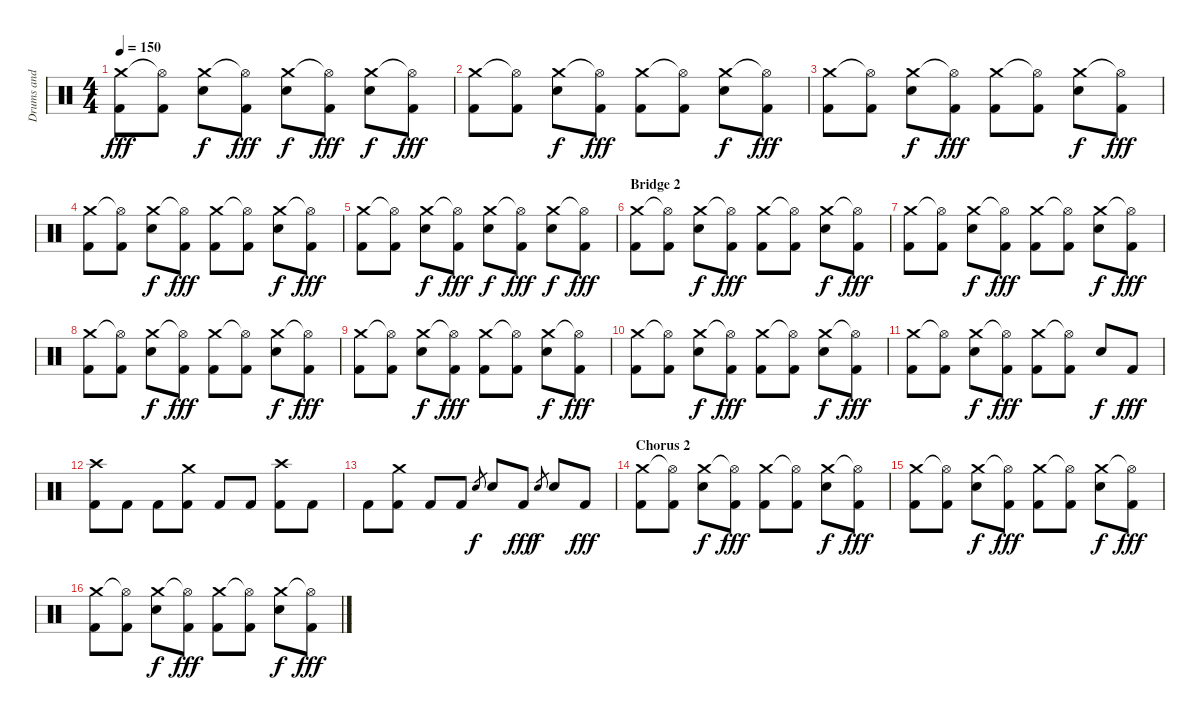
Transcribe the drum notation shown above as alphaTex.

\track ("Drums and Percussion" "Drums and ") {instrument percussion}
\staff {score}
\articulation defaults
\ts (4 4)
\tempo 150
\clef neutral
\ks c
("Crash medium (hit)" "Kick (hit) 2").8{dy fff} ("Hi-Hat (open)"{t} "Kick (hit) 2").8 ("Crash medium (hit)" "Electric Snare (hit)").8{dy f} ("Hi-Hat (open)"{t} "Kick (hit) 2").8{dy fff} ("Crash medium (hit)" "Electric Snare (hit)").8{dy f} ("Hi-Hat (open)"{t} "Kick (hit) 2").8{dy fff} ("Crash medium (hit)" "Electric Snare (hit)").8{dy f} ("Hi-Hat (open)"{t} "Kick (hit) 2").8{dy fff} |
("Crash medium (hit)" "Kick (hit) 2").8 ("Hi-Hat (open)"{t} "Kick (hit) 2").8 ("Crash medium (hit)" "Electric Snare (hit)").8{dy f} ("Hi-Hat (open)"{t} "Kick (hit) 2").8{dy fff} ("Crash medium (hit)" "Kick (hit) 2").8 ("Hi-Hat (open)"{t} "Kick (hit) 2").8 ("Crash medium (hit)" "Electric Snare (hit)").8{dy f} ("Hi-Hat (open)"{t} "Kick (hit) 2").8{dy fff} |
("Crash medium (hit)" "Kick (hit) 2").8 ("Hi-Hat (open)"{t} "Kick (hit) 2").8 ("Crash medium (hit)" "Electric Snare (hit)").8{dy f} ("Hi-Hat (open)"{t} "Kick (hit) 2").8{dy fff} ("Crash medium (hit)" "Kick (hit) 2").8 ("Hi-Hat (open)"{t} "Kick (hit) 2").8 ("Crash medium (hit)" "Electric Snare (hit)").8{dy f} ("Hi-Hat (open)"{t} "Kick (hit) 2").8{dy fff} |
("Crash medium (hit)" "Kick (hit) 2").8 ("Hi-Hat (open)"{t} "Kick (hit) 2").8 ("Crash medium (hit)" "Electric Snare (hit)").8{dy f} ("Hi-Hat (open)"{t} "Kick (hit) 2").8{dy fff} ("Crash medium (hit)" "Kick (hit) 2").8 ("Hi-Hat (open)"{t} "Kick (hit) 2").8 ("Crash medium (hit)" "Electric Snare (hit)").8{dy f} ("Hi-Hat (open)"{t} "Kick (hit) 2").8{dy fff} |
("Crash medium (hit)" "Kick (hit) 2").8 ("Hi-Hat (open)"{t} "Kick (hit) 2").8 ("Crash medium (hit)" "Electric Snare (hit)").8{dy f} ("Hi-Hat (open)"{t} "Kick (hit) 2").8{dy fff} ("Crash medium (hit)" "Electric Snare (hit)").8{dy f} ("Hi-Hat (open)"{t} "Kick (hit) 2").8{dy fff} ("Crash medium (hit)" "Electric Snare (hit)").8{dy f} ("Hi-Hat (open)"{t} "Kick (hit) 2").8{dy fff} |
\section ("" "Bridge 2")
("Crash medium (hit)" "Kick (hit) 2").8 ("Hi-Hat (open)"{t} "Kick (hit) 2").8 ("Crash medium (hit)" "Electric Snare (hit)").8{dy f} ("Hi-Hat (open)"{t} "Kick (hit) 2").8{dy fff} ("Crash medium (hit)" "Kick (hit) 2").8 ("Hi-Hat (open)"{t} "Kick (hit) 2").8 ("Crash medium (hit)" "Electric Snare (hit)").8{dy f} ("Hi-Hat (open)"{t} "Kick (hit) 2").8{dy fff} |
("Crash medium (hit)" "Kick (hit) 2").8 ("Hi-Hat (open)"{t} "Kick (hit) 2").8 ("Crash medium (hit)" "Electric Snare (hit)").8{dy f} ("Hi-Hat (open)"{t} "Kick (hit) 2").8{dy fff} ("Crash medium (hit)" "Kick (hit) 2").8 ("Hi-Hat (open)"{t} "Kick (hit) 2").8 ("Crash medium (hit)" "Electric Snare (hit)").8{dy f} ("Hi-Hat (open)"{t} "Kick (hit) 2").8{dy fff} |
("Crash medium (hit)" "Kick (hit) 2").8 ("Hi-Hat (open)"{t} "Kick (hit) 2").8 ("Crash medium (hit)" "Electric Snare (hit)").8{dy f} ("Hi-Hat (open)"{t} "Kick (hit) 2").8{dy fff} ("Crash medium (hit)" "Kick (hit) 2").8 ("Hi-Hat (open)"{t} "Kick (hit) 2").8 ("Crash medium (hit)" "Electric Snare (hit)").8{dy f} ("Hi-Hat (open)"{t} "Kick (hit) 2").8{dy fff} |
("Crash medium (hit)" "Kick (hit) 2").8 ("Hi-Hat (open)"{t} "Kick (hit) 2").8 ("Crash medium (hit)" "Electric Snare (hit)").8{dy f} ("Hi-Hat (open)"{t} "Kick (hit) 2").8{dy fff} ("Crash medium (hit)" "Kick (hit) 2").8 ("Hi-Hat (open)"{t} "Kick (hit) 2").8 ("Crash medium (hit)" "Electric Snare (hit)").8{dy f} ("Hi-Hat (open)"{t} "Kick (hit) 2").8{dy fff} |
("Crash medium (hit)" "Kick (hit) 2").8 ("Hi-Hat (open)"{t} "Kick (hit) 2").8 ("Crash medium (hit)" "Electric Snare (hit)").8{dy f} ("Hi-Hat (open)"{t} "Kick (hit) 2").8{dy fff} ("Crash medium (hit)" "Kick (hit) 2").8 ("Hi-Hat (open)"{t} "Kick (hit) 2").8 ("Crash medium (hit)" "Electric Snare (hit)").8{dy f} ("Hi-Hat (open)"{t} "Kick (hit) 2").8{dy fff} |
("Crash medium (hit)" "Kick (hit) 2").8 ("Hi-Hat (open)"{t} "Kick (hit) 2").8 ("Crash medium (hit)" "Electric Snare (hit)").8{dy f} ("Hi-Hat (open)"{t} "Kick (hit) 2").8{dy fff} ("Crash medium (hit)" "Kick (hit) 2").8 ("Hi-Hat (open)"{t} "Kick (hit) 2").8 "Electric Snare (hit)".8{dy f} "Kick (hit) 2".8{dy fff} |
("Crash high (hit)" "Kick (hit) 2").8 "Kick (hit) 2".8 "Kick (hit) 2".8 ("Crash medium (hit)" "Kick (hit) 2").8 "Kick (hit) 2".8 "Kick (hit) 2".8 ("Crash high (hit)" "Kick (hit) 2").8 "Kick (hit) 2".8 |
"Kick (hit) 2".8 ("Crash medium (hit)" "Kick (hit) 2").8 "Kick (hit) 2".8 "Kick (hit) 2".8 "Electric Snare (hit)".8{gr dy f} "Electric Snare (hit)".8 "Kick (hit) 2".8{dy fff} "Electric Snare (hit)".8{gr dy f} "Electric Snare (hit)".8 "Kick (hit) 2".8{dy fff} |
\section ("" "Chorus 2")
("Crash medium (hit)" "Kick (hit) 2").8 ("Hi-Hat (open)"{t} "Kick (hit) 2").8 ("Crash medium (hit)" "Electric Snare (hit)").8{dy f} ("Hi-Hat (open)"{t} "Kick (hit) 2").8{dy fff} ("Crash medium (hit)" "Kick (hit) 2").8 ("Hi-Hat (open)"{t} "Kick (hit) 2").8 ("Crash medium (hit)" "Electric Snare (hit)").8{dy f} ("Hi-Hat (open)"{t} "Kick (hit) 2").8{dy fff} |
("Crash medium (hit)" "Kick (hit) 2").8 ("Hi-Hat (open)"{t} "Kick (hit) 2").8 ("Crash medium (hit)" "Electric Snare (hit)").8{dy f} ("Hi-Hat (open)"{t} "Kick (hit) 2").8{dy fff} ("Crash medium (hit)" "Kick (hit) 2").8 ("Hi-Hat (open)"{t} "Kick (hit) 2").8 ("Crash medium (hit)" "Electric Snare (hit)").8{dy f} ("Hi-Hat (open)"{t} "Kick (hit) 2").8{dy fff} |
("Crash medium (hit)" "Kick (hit) 2").8 ("Hi-Hat (open)"{t} "Kick (hit) 2").8 ("Crash medium (hit)" "Electric Snare (hit)").8{dy f} ("Hi-Hat (open)"{t} "Kick (hit) 2").8{dy fff} ("Crash medium (hit)" "Kick (hit) 2").8 ("Hi-Hat (open)"{t} "Kick (hit) 2").8 ("Crash medium (hit)" "Electric Snare (hit)").8{dy f} ("Hi-Hat (open)"{t} "Kick (hit) 2").8{dy fff}
